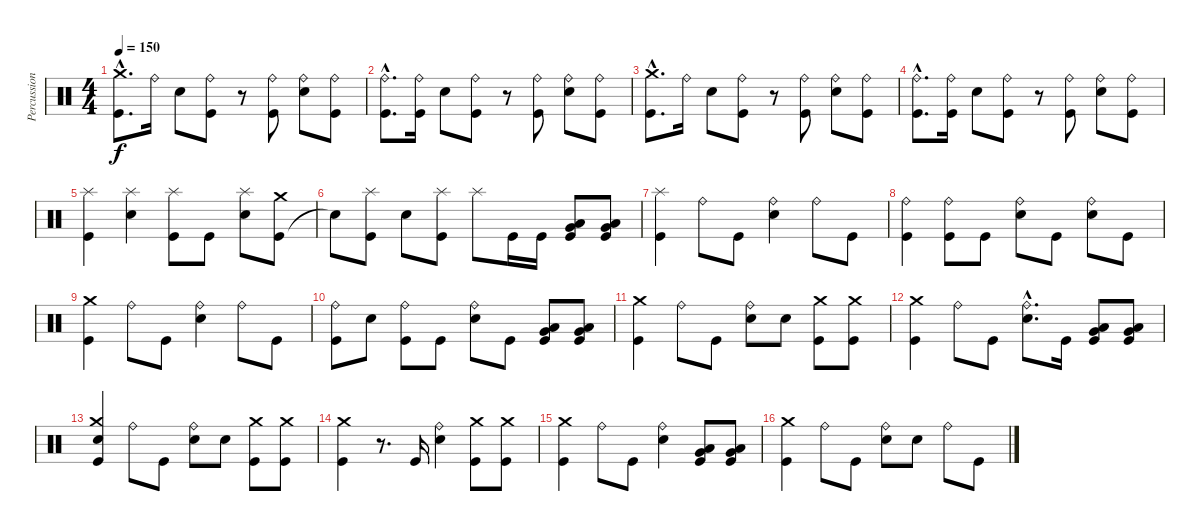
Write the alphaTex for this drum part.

\track ("Percussions" "Percussion") {instrument percussion}
\staff {score}
\articulation defaults
\ts (4 4)
\tempo 150
\clef neutral
\ks c
("Kick (hit)"{hac} "Crash medium (hit)"{hac}).8{d dy f} "Ride (bell)".16 "Electric Snare (hit)".8 ("Kick (hit)" "Ride (bell)").8 r.8 ("Kick (hit)" "Ride (bell)").8 ("Electric Snare (hit)" "Ride (bell)").8 ("Kick (hit)" "Ride (bell)").8 |
("Kick (hit)"{hac} "Ride (bell)"{hac}).8{d} ("Kick (hit)" "Ride (bell)").16 "Electric Snare (hit)".8 ("Kick (hit)" "Ride (bell)").8 r.8 ("Kick (hit)" "Ride (bell)").8 ("Electric Snare (hit)" "Ride (bell)").8 ("Kick (hit)" "Ride (bell)").8 |
("Kick (hit)"{hac} "Crash medium (hit)"{hac}).8{d} "Ride (bell)".16 "Electric Snare (hit)".8 ("Kick (hit)" "Ride (bell)").8 r.8 ("Kick (hit)" "Ride (bell)").8 ("Electric Snare (hit)" "Ride (bell)").8 ("Kick (hit)" "Ride (bell)").8 |
("Kick (hit)"{hac} "Ride (bell)"{hac}).8{d} ("Kick (hit)" "Ride (bell)").16 "Electric Snare (hit)".8 ("Kick (hit)" "Ride (bell)").8 r.8 ("Kick (hit)" "Ride (bell)").8 ("Electric Snare (hit)" "Ride (bell)").8 ("Kick (hit)" "Ride (bell)").8 |
("Kick (hit)" "Splash (hit)").4 ("Electric Snare (hit)" "Splash (hit)").4 ("Kick (hit)" "Splash (hit)").8 "Kick (hit)".8 ("Electric Snare (hit)" "Splash (hit)").8 ("Kick (hit)" "Crash medium (hit)").8 |
"Snare (hit)"{t}.8 ("Kick (hit)" "Splash (hit)").8 "Electric Snare (hit)".8 ("Kick (hit)" "Splash (hit)").8 "Splash (hit)".8 "Kick (hit)".16 "Kick (hit)".16 ("Kick (hit)" "Low Tom (hit)" "Very Low Tom (hit)").8 ("Kick (hit)" "Very Low Tom (hit)" "Low Floor Tom (hit)").8 |
("Kick (hit)" "Splash (hit)").4 "Ride (bell)".8 "Kick (hit)".8 ("Electric Snare (hit)" "Ride (bell)").4 "Ride (bell)".8 "Kick (hit)".8 |
("Kick (hit)" "Ride (bell)").4 ("Kick (hit)" "Ride (bell)").8 "Kick (hit)".8 ("Electric Snare (hit)" "Ride (bell)").8 "Kick (hit)".8 ("Electric Snare (hit)" "Ride (bell)").8 "Kick (hit)".8 |
("Kick (hit)" "Crash medium (hit)").4 "Ride (bell)".8 "Kick (hit)".8 ("Electric Snare (hit)" "Ride (bell)").4 "Ride (bell)".8 "Kick (hit)".8 |
("Kick (hit)" "Ride (bell)").8 "Electric Snare (hit)".8 ("Kick (hit)" "Ride (bell)").8 "Kick (hit)".8 ("Electric Snare (hit)" "Ride (bell)").8 "Kick (hit)".8 ("Kick (hit)" "Low Tom (hit)" "Very Low Tom (hit)").8 ("Kick (hit)" "Very Low Tom (hit)" "Low Floor Tom (hit)").8 |
("Kick (hit)" "Crash medium (hit)").4 "Ride (bell)".8 "Kick (hit)".8 ("Electric Snare (hit)" "Ride (bell)").8 "Electric Snare (hit)".8 ("Kick (hit)" "Crash medium (hit)").8 ("Kick (hit)" "Crash medium (hit)").8 |
("Kick (hit)" "Crash medium (hit)").4 "Ride (bell)".8 "Kick (hit)".8 ("Electric Snare (hit)"{hac} "Ride (bell)"{hac}).8{d} "Kick (hit)".16 ("Kick (hit)" "Low Tom (hit)" "Very Low Tom (hit)").8 ("Kick (hit)" "Very Low Tom (hit)" "Low Floor Tom (hit)").8 |
("Kick (hit)" "Electric Snare (hit)" "Crash medium (hit)").4 "Ride (bell)".8 "Kick (hit)".8 ("Electric Snare (hit)" "Ride (bell)").8 "Electric Snare (hit)".8 ("Kick (hit)" "Crash medium (hit)").8 ("Kick (hit)" "Crash medium (hit)").8 |
("Kick (hit)" "Crash medium (hit)").4 r.8{d} "Kick (hit)".16 ("Electric Snare (hit)" "Ride (bell)").4 ("Kick (hit)" "Crash medium (hit)").8 ("Kick (hit)" "Crash medium (hit)").8 |
("Kick (hit)" "Crash medium (hit)").4 "Ride (bell)".8 "Kick (hit)".8 ("Electric Snare (hit)" "Ride (bell)").4 ("Kick (hit)" "Low Tom (hit)" "Very Low Tom (hit)").8 ("Kick (hit)" "Very Low Tom (hit)" "Low Floor Tom (hit)").8 |
("Kick (hit)" "Crash medium (hit)").4 "Ride (bell)".8 "Kick (hit)".8 ("Electric Snare (hit)" "Ride (bell)").8 "Electric Snare (hit)".8 "Ride (bell)".8 "Kick (hit)".8
